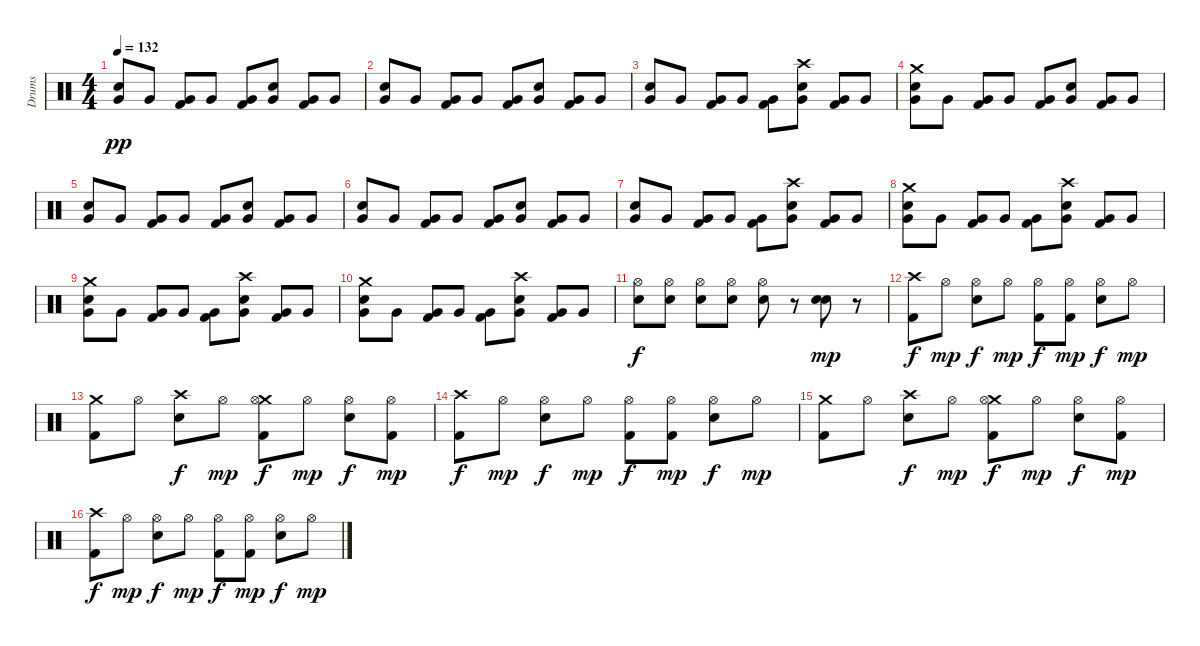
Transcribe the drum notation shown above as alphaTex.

\track ("Drums" "Drums") {instrument percussion}
\staff {score}
\articulation defaults
\ts (4 4)
\tempo 132
\clef neutral
\ks c
("Very Low Tom (hit)" "Electric Snare (hit)").8{dy pp} "Very Low Tom (hit)".8 ("Very Low Tom (hit)" "Kick (hit) 2").8 "Very Low Tom (hit)".8 ("Very Low Tom (hit)" "Kick (hit) 2").8 ("Very Low Tom (hit)" "Electric Snare (hit)").8 ("Very Low Tom (hit)" "Kick (hit) 2").8 "Very Low Tom (hit)".8 |
("Very Low Tom (hit)" "Electric Snare (hit)").8 "Very Low Tom (hit)".8 ("Very Low Tom (hit)" "Kick (hit) 2").8 "Very Low Tom (hit)".8 ("Very Low Tom (hit)" "Kick (hit) 2").8 ("Very Low Tom (hit)" "Electric Snare (hit)").8 ("Very Low Tom (hit)" "Kick (hit) 2").8 "Very Low Tom (hit)".8 |
("Very Low Tom (hit)" "Electric Snare (hit)").8 "Very Low Tom (hit)".8 ("Very Low Tom (hit)" "Kick (hit) 2").8 "Very Low Tom (hit)".8 ("Very Low Tom (hit)" "Kick (hit) 2").8 ("Crash high (hit)" "Very Low Tom (hit)" "Electric Snare (hit)").8 ("Very Low Tom (hit)" "Kick (hit) 2").8 "Very Low Tom (hit)".8 |
("Crash medium (hit)" "Very Low Tom (hit)" "Electric Snare (hit)").8 "Very Low Tom (hit)".8 ("Very Low Tom (hit)" "Kick (hit) 2").8 "Very Low Tom (hit)".8 ("Very Low Tom (hit)" "Kick (hit) 2").8 ("Very Low Tom (hit)" "Electric Snare (hit)").8 ("Very Low Tom (hit)" "Kick (hit) 2").8 "Very Low Tom (hit)".8 |
("Very Low Tom (hit)" "Electric Snare (hit)").8 "Very Low Tom (hit)".8 ("Very Low Tom (hit)" "Kick (hit) 2").8 "Very Low Tom (hit)".8 ("Very Low Tom (hit)" "Kick (hit) 2").8 ("Very Low Tom (hit)" "Electric Snare (hit)").8 ("Very Low Tom (hit)" "Kick (hit) 2").8 "Very Low Tom (hit)".8 |
("Very Low Tom (hit)" "Electric Snare (hit)").8 "Very Low Tom (hit)".8 ("Very Low Tom (hit)" "Kick (hit) 2").8 "Very Low Tom (hit)".8 ("Very Low Tom (hit)" "Kick (hit) 2").8 ("Very Low Tom (hit)" "Electric Snare (hit)").8 ("Very Low Tom (hit)" "Kick (hit) 2").8 "Very Low Tom (hit)".8 |
("Very Low Tom (hit)" "Electric Snare (hit)").8 "Very Low Tom (hit)".8 ("Very Low Tom (hit)" "Kick (hit) 2").8 "Very Low Tom (hit)".8 ("Very Low Tom (hit)" "Kick (hit) 2").8 ("Crash high (hit)" "Very Low Tom (hit)" "Electric Snare (hit)").8 ("Very Low Tom (hit)" "Kick (hit) 2").8 "Very Low Tom (hit)".8 |
("Crash medium (hit)" "Very Low Tom (hit)" "Electric Snare (hit)").8 "Very Low Tom (hit)".8 ("Very Low Tom (hit)" "Kick (hit) 2").8 "Very Low Tom (hit)".8 ("Very Low Tom (hit)" "Kick (hit) 2").8 ("Crash high (hit)" "Very Low Tom (hit)" "Electric Snare (hit)").8 ("Very Low Tom (hit)" "Kick (hit) 2").8 "Very Low Tom (hit)".8 |
("Crash medium (hit)" "Very Low Tom (hit)" "Electric Snare (hit)").8 "Very Low Tom (hit)".8 ("Very Low Tom (hit)" "Kick (hit) 2").8 "Very Low Tom (hit)".8 ("Very Low Tom (hit)" "Kick (hit) 2").8 ("Crash high (hit)" "Very Low Tom (hit)" "Electric Snare (hit)").8 ("Very Low Tom (hit)" "Kick (hit) 2").8 "Very Low Tom (hit)".8 |
("Crash medium (hit)" "Very Low Tom (hit)" "Electric Snare (hit)").8 "Very Low Tom (hit)".8 ("Very Low Tom (hit)" "Kick (hit) 2").8 "Very Low Tom (hit)".8 ("Very Low Tom (hit)" "Kick (hit) 2").8 ("Crash high (hit)" "Very Low Tom (hit)" "Electric Snare (hit)").8 ("Very Low Tom (hit)" "Kick (hit) 2").8 "Very Low Tom (hit)".8 |
("Hi-Hat (open)" "Electric Snare (hit)").8{dy f} ("Hi-Hat (open)" "Electric Snare (hit)").8 ("Hi-Hat (open)" "Electric Snare (hit)").8 ("Hi-Hat (open)" "Electric Snare (hit)").8 ("Electric Snare (hit)" "Hi-Hat (open)").8 r.8 ("Electric Snare (hit)" "Snare (hit) 2").8{dy mp} r.8 |
("Crash high (hit)" "Kick (hit) 2").8{dy f} "Hi-Hat (open)".8{dy mp} ("Hi-Hat (open)" "Electric Snare (hit)").8{dy f} "Hi-Hat (open)".8{dy mp} ("Hi-Hat (open)" "Kick (hit) 2").8{dy f} ("Kick (hit) 2" "Hi-Hat (open)").8{dy mp} ("Hi-Hat (open)" "Electric Snare (hit)").8{dy f} "Hi-Hat (open)".8{dy mp} |
("Crash medium (hit)" "Kick (hit) 2").8 "Hi-Hat (open)".8 ("Crash high (hit)" "Electric Snare (hit)").8{dy f} "Hi-Hat (open)".8{dy mp} ("Crash medium (hit)" "Hi-Hat (open)" "Kick (hit) 2").8{dy f} "Hi-Hat (open)".8{dy mp} ("Hi-Hat (open)" "Electric Snare (hit)").8{dy f} ("Hi-Hat (open)" "Kick (hit) 2").8{dy mp} |
("Crash high (hit)" "Kick (hit) 2").8{dy f} "Hi-Hat (open)".8{dy mp} ("Hi-Hat (open)" "Electric Snare (hit)").8{dy f} "Hi-Hat (open)".8{dy mp} ("Hi-Hat (open)" "Kick (hit) 2").8{dy f} ("Kick (hit) 2" "Hi-Hat (open)").8{dy mp} ("Hi-Hat (open)" "Electric Snare (hit)").8{dy f} "Hi-Hat (open)".8{dy mp} |
("Crash medium (hit)" "Kick (hit) 2").8 "Hi-Hat (open)".8 ("Crash high (hit)" "Electric Snare (hit)").8{dy f} "Hi-Hat (open)".8{dy mp} ("Crash medium (hit)" "Hi-Hat (open)" "Kick (hit) 2").8{dy f} "Hi-Hat (open)".8{dy mp} ("Hi-Hat (open)" "Electric Snare (hit)").8{dy f} ("Hi-Hat (open)" "Kick (hit) 2").8{dy mp} |
("Crash high (hit)" "Kick (hit) 2").8{dy f} "Hi-Hat (open)".8{dy mp} ("Hi-Hat (open)" "Electric Snare (hit)").8{dy f} "Hi-Hat (open)".8{dy mp} ("Hi-Hat (open)" "Kick (hit) 2").8{dy f} ("Kick (hit) 2" "Hi-Hat (open)").8{dy mp} ("Hi-Hat (open)" "Electric Snare (hit)").8{dy f} "Hi-Hat (open)".8{dy mp}
